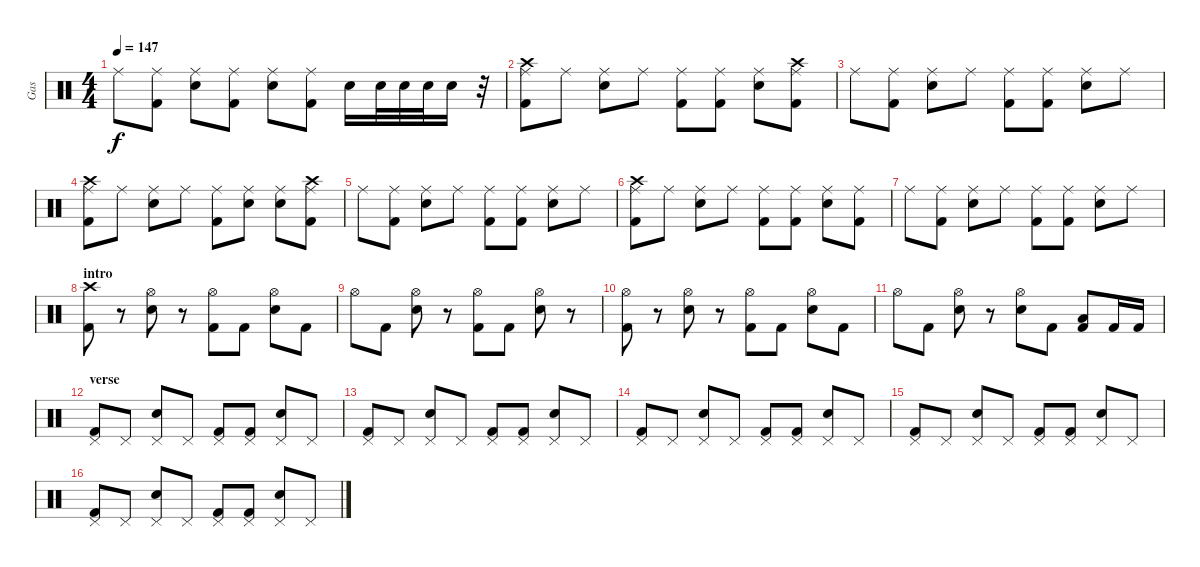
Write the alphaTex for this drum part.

\track ("Gas" "Gas") {instrument percussion}
\staff {score}
\articulation defaults
\ts (4 4)
\tempo 147
\clef neutral
\ks c "Ride (middle)".8{dy f}
("Ride (middle)" "Kick (hit) 2").8 ("Ride (middle)" "Electric Snare (hit)").8 ("Ride (middle)" "Kick (hit) 2").8 ("Ride (middle)" "Electric Snare (hit)").8 ("Ride (middle)" "Kick (hit) 2").8 "Electric Snare (hit)".16 "Electric Snare (hit)".32 "Electric Snare (hit)".32 "Electric Snare (hit)".32 "Electric Snare (hit)".16 r.32 |
("Ride (middle)" "Crash high (hit)" "Kick (hit) 2").8 "Ride (middle)".8 ("Ride (middle)" "Electric Snare (hit)").8 "Ride (middle)".8 ("Ride (middle)" "Kick (hit) 2").8 ("Ride (middle)" "Kick (hit) 2").8 ("Ride (middle)" "Electric Snare (hit)").8 ("Ride (middle)" "Crash high (hit)" "Kick (hit) 2").8 |
"Ride (middle)".8 ("Ride (middle)" "Kick (hit) 2").8 ("Ride (middle)" "Electric Snare (hit)").8 "Ride (middle)".8 ("Ride (middle)" "Kick (hit) 2").8 ("Ride (middle)" "Kick (hit) 2").8 ("Ride (middle)" "Electric Snare (hit)").8 "Ride (middle)".8 |
("Ride (middle)" "Crash high (hit)" "Kick (hit) 2").8 "Ride (middle)".8 ("Ride (middle)" "Electric Snare (hit)").8 "Ride (middle)".8 ("Ride (middle)" "Kick (hit) 2").8 ("Ride (middle)" "Electric Snare (hit)").8 ("Ride (middle)" "Electric Snare (hit)").8 ("Ride (middle)" "Crash high (hit)" "Kick (hit) 2").8 |
"Ride (middle)".8 ("Ride (middle)" "Kick (hit) 2").8 ("Ride (middle)" "Electric Snare (hit)").8 "Ride (middle)".8 ("Ride (middle)" "Kick (hit) 2").8 ("Ride (middle)" "Kick (hit) 2").8 ("Ride (middle)" "Electric Snare (hit)").8 "Ride (middle)".8 |
("Ride (middle)" "Crash high (hit)" "Kick (hit) 2").8 "Ride (middle)".8 ("Ride (middle)" "Electric Snare (hit)").8 "Ride (middle)".8 ("Ride (middle)" "Kick (hit) 2").8 ("Ride (middle)" "Kick (hit) 2").8 ("Ride (middle)" "Electric Snare (hit)").8 ("Ride (middle)" "Kick (hit) 2").8 |
"Ride (middle)".8 ("Ride (middle)" "Kick (hit) 2").8 ("Ride (middle)" "Electric Snare (hit)").8 "Ride (middle)".8 ("Ride (middle)" "Kick (hit) 2").8 ("Ride (middle)" "Kick (hit) 2").8 ("Ride (middle)" "Electric Snare (hit)").8 "Ride (middle)".8 |
\section ("" "intro")
("Crash high (hit)" "Kick (hit) 2").8 r.8 ("Hi-Hat (open)" "Electric Snare (hit)").8 r.8 ("Hi-Hat (open)" "Kick (hit) 2").8 "Kick (hit) 2".8 ("Hi-Hat (open)" "Electric Snare (hit)").8 "Kick (hit) 2".8 |
"Hi-Hat (open)".8 "Kick (hit) 2".8 ("Hi-Hat (open)" "Electric Snare (hit)").8 r.8 ("Hi-Hat (open)" "Kick (hit) 2").8 "Kick (hit) 2".8 ("Hi-Hat (open)" "Electric Snare (hit)").8 r.8 |
("Hi-Hat (open)" "Kick (hit) 2").8 r.8 ("Hi-Hat (open)" "Electric Snare (hit)").8 r.8 ("Hi-Hat (open)" "Kick (hit) 2").8 "Kick (hit) 2".8 ("Hi-Hat (open)" "Electric Snare (hit)").8 "Kick (hit) 2".8 |
"Hi-Hat (open)".8 "Kick (hit) 2".8 ("Hi-Hat (open)" "Electric Snare (hit)").8 r.8 ("Hi-Hat (open)" "Electric Snare (hit)").8 "Kick (hit) 2".8 ("Low Tom (hit)" "Kick (hit) 2").8 "Kick (hit) 2".16 "Kick (hit) 2".16 |
\section ("" "verse")
("Pedal Hi-Hat (hit)" "Kick (hit) 2").8 "Pedal Hi-Hat (hit)".8 ("Pedal Hi-Hat (hit)" "Electric Snare (hit)").8 "Pedal Hi-Hat (hit)".8 ("Pedal Hi-Hat (hit)" "Kick (hit) 2").8 ("Pedal Hi-Hat (hit)" "Kick (hit) 2").8 ("Pedal Hi-Hat (hit)" "Electric Snare (hit)").8 "Pedal Hi-Hat (hit)".8 |
("Pedal Hi-Hat (hit)" "Kick (hit) 2").8 "Pedal Hi-Hat (hit)".8 ("Pedal Hi-Hat (hit)" "Electric Snare (hit)").8 "Pedal Hi-Hat (hit)".8 ("Pedal Hi-Hat (hit)" "Kick (hit) 2").8 ("Pedal Hi-Hat (hit)" "Kick (hit) 2").8 ("Pedal Hi-Hat (hit)" "Electric Snare (hit)").8 "Pedal Hi-Hat (hit)".8 |
("Pedal Hi-Hat (hit)" "Kick (hit) 2").8 "Pedal Hi-Hat (hit)".8 ("Pedal Hi-Hat (hit)" "Electric Snare (hit)").8 "Pedal Hi-Hat (hit)".8 ("Pedal Hi-Hat (hit)" "Kick (hit) 2").8 ("Pedal Hi-Hat (hit)" "Kick (hit) 2").8 ("Pedal Hi-Hat (hit)" "Electric Snare (hit)").8 "Pedal Hi-Hat (hit)".8 |
("Pedal Hi-Hat (hit)" "Kick (hit) 2").8 "Pedal Hi-Hat (hit)".8 ("Pedal Hi-Hat (hit)" "Electric Snare (hit)").8 "Pedal Hi-Hat (hit)".8 ("Pedal Hi-Hat (hit)" "Kick (hit) 2").8 ("Pedal Hi-Hat (hit)" "Kick (hit) 2").8 ("Pedal Hi-Hat (hit)" "Electric Snare (hit)").8 "Pedal Hi-Hat (hit)".8 |
("Pedal Hi-Hat (hit)" "Kick (hit) 2").8 "Pedal Hi-Hat (hit)".8 ("Pedal Hi-Hat (hit)" "Electric Snare (hit)").8 "Pedal Hi-Hat (hit)".8 ("Pedal Hi-Hat (hit)" "Kick (hit) 2").8 ("Pedal Hi-Hat (hit)" "Kick (hit) 2").8 ("Pedal Hi-Hat (hit)" "Electric Snare (hit)").8 "Pedal Hi-Hat (hit)".8
